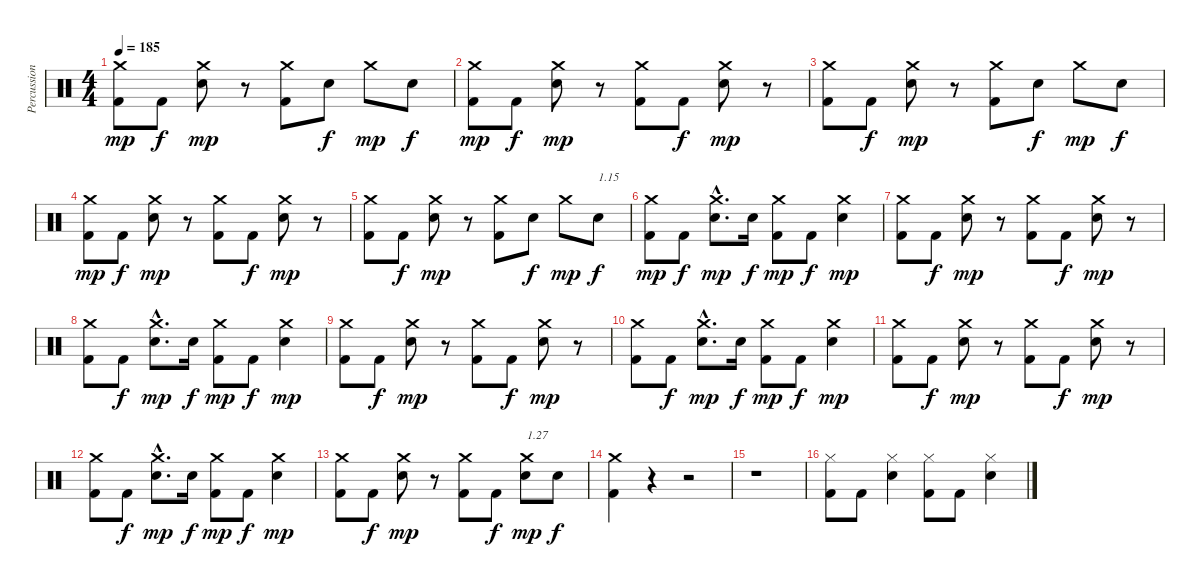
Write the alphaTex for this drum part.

\track ("Percussions" "Percussion") {instrument percussion}
\staff {score}
\articulation defaults
\ts (4 4)
\tempo 185
\clef neutral
\ks c
("Kick (hit) 2" "Crash medium (hit)").8{dy mp} "Kick (hit) 2".8{dy f} ("Electric Snare (hit)" "Crash medium (hit)").8{dy mp} r.8 ("Kick (hit) 2" "Crash medium (hit)").8 "Electric Snare (hit)".8{dy f} "Crash medium (hit)".8{dy mp} "Electric Snare (hit)".8{dy f} |
("Kick (hit) 2" "Crash medium (hit)").8{dy mp} "Kick (hit) 2".8{dy f} ("Electric Snare (hit)" "Crash medium (hit)").8{dy mp} r.8 ("Kick (hit) 2" "Crash medium (hit)").8 "Kick (hit) 2".8{dy f} ("Electric Snare (hit)" "Crash medium (hit)").8{dy mp} r.8 |
("Kick (hit) 2" "Crash medium (hit)").8 "Kick (hit) 2".8{dy f} ("Electric Snare (hit)" "Crash medium (hit)").8{dy mp} r.8 ("Kick (hit) 2" "Crash medium (hit)").8 "Electric Snare (hit)".8{dy f} "Crash medium (hit)".8{dy mp} "Electric Snare (hit)".8{dy f} |
("Kick (hit) 2" "Crash medium (hit)").8{dy mp} "Kick (hit) 2".8{dy f} ("Electric Snare (hit)" "Crash medium (hit)").8{dy mp} r.8 ("Kick (hit) 2" "Crash medium (hit)").8 "Kick (hit) 2".8{dy f} ("Electric Snare (hit)" "Crash medium (hit)").8{dy mp} r.8 |
("Kick (hit) 2" "Crash medium (hit)").8 "Kick (hit) 2".8{dy f} ("Electric Snare (hit)" "Crash medium (hit)").8{dy mp} r.8 ("Kick (hit) 2" "Crash medium (hit)").8 "Electric Snare (hit)".8{dy f} "Crash medium (hit)".8{dy mp} "Electric Snare (hit)".8{txt "1.15" dy f} |
("Kick (hit) 2" "Crash medium (hit)").8{dy mp} "Kick (hit) 2".8{dy f} ("Electric Snare (hit)"{hac} "Crash medium (hit)"{hac}).8{d dy mp} "Electric Snare (hit)".16{dy f} ("Kick (hit) 2" "Crash medium (hit)").8{dy mp} "Kick (hit) 2".8{dy f} ("Electric Snare (hit)" "Crash medium (hit)").4{dy mp} |
("Kick (hit) 2" "Crash medium (hit)").8 "Kick (hit) 2".8{dy f} ("Electric Snare (hit)" "Crash medium (hit)").8{dy mp} r.8 ("Kick (hit) 2" "Crash medium (hit)").8 "Kick (hit) 2".8{dy f} ("Electric Snare (hit)" "Crash medium (hit)").8{dy mp} r.8 |
("Kick (hit) 2" "Crash medium (hit)").8 "Kick (hit) 2".8{dy f} ("Electric Snare (hit)"{hac} "Crash medium (hit)"{hac}).8{d dy mp} "Electric Snare (hit)".16{dy f} ("Kick (hit) 2" "Crash medium (hit)").8{dy mp} "Kick (hit) 2".8{dy f} ("Electric Snare (hit)" "Crash medium (hit)").4{dy mp} |
("Kick (hit) 2" "Crash medium (hit)").8 "Kick (hit) 2".8{dy f} ("Electric Snare (hit)" "Crash medium (hit)").8{dy mp} r.8 ("Kick (hit) 2" "Crash medium (hit)").8 "Kick (hit) 2".8{dy f} ("Electric Snare (hit)" "Crash medium (hit)").8{dy mp} r.8 |
("Kick (hit) 2" "Crash medium (hit)").8 "Kick (hit) 2".8{dy f} ("Electric Snare (hit)"{hac} "Crash medium (hit)"{hac}).8{d dy mp} "Electric Snare (hit)".16{dy f} ("Kick (hit) 2" "Crash medium (hit)").8{dy mp} "Kick (hit) 2".8{dy f} ("Electric Snare (hit)" "Crash medium (hit)").4{dy mp} |
("Kick (hit) 2" "Crash medium (hit)").8 "Kick (hit) 2".8{dy f} ("Electric Snare (hit)" "Crash medium (hit)").8{dy mp} r.8 ("Kick (hit) 2" "Crash medium (hit)").8 "Kick (hit) 2".8{dy f} ("Electric Snare (hit)" "Crash medium (hit)").8{dy mp} r.8 |
("Kick (hit) 2" "Crash medium (hit)").8 "Kick (hit) 2".8{dy f} ("Electric Snare (hit)"{hac} "Crash medium (hit)"{hac}).8{d dy mp} "Electric Snare (hit)".16{dy f} ("Kick (hit) 2" "Crash medium (hit)").8{dy mp} "Kick (hit) 2".8{dy f} ("Electric Snare (hit)" "Crash medium (hit)").4{dy mp} |
("Kick (hit) 2" "Crash medium (hit)").8 "Kick (hit) 2".8{dy f} ("Electric Snare (hit)" "Crash medium (hit)").8{dy mp} r.8 ("Kick (hit) 2" "Crash medium (hit)").8 "Kick (hit) 2".8{dy f} ("Electric Snare (hit)" "Crash medium (hit)").8{txt "1.27" dy mp} "Electric Snare (hit)".8{dy f} |
("Kick (hit) 2" "Crash medium (hit)").4 r.4 r.2 |
r.1 |
("Kick (hit) 2" "Hi-Hat (closed)").8 "Kick (hit) 2".8 ("Electric Snare (hit)" "Hi-Hat (closed)").4 ("Kick (hit) 2" "Hi-Hat (closed)").8 "Kick (hit) 2".8 ("Electric Snare (hit)" "Hi-Hat (closed)").4
